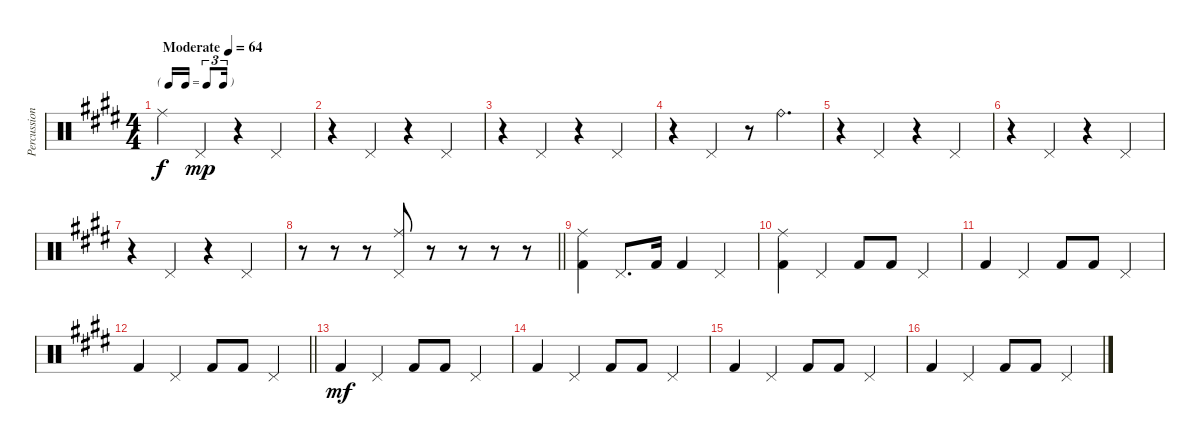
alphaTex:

\track ("Percussion" "Percussion") {instrument percussion}
\staff {score}
\articulation defaults
\ts (4 4)
\tf triplet16th
\tempo (64 "Moderate")
\clef neutral
\ks e "Ride (middle)".4{dy f} "Pedal Hi-Hat (hit)".4{dy mp}
r.4 "Pedal Hi-Hat (hit)".4 |
r.4 "Pedal Hi-Hat (hit)".4 r.4 "Pedal Hi-Hat (hit)".4 |
r.4 "Pedal Hi-Hat (hit)".4 r.4 "Pedal Hi-Hat (hit)".4 |
r.4 "Pedal Hi-Hat (hit)".4 r.8 "Ride (bell)".4{d} |
r.4 "Pedal Hi-Hat (hit)".4 r.4 "Pedal Hi-Hat (hit)".4 |
r.4 "Pedal Hi-Hat (hit)".4 r.4 "Pedal Hi-Hat (hit)".4 |
r.4 "Pedal Hi-Hat (hit)".4 r.4 "Pedal Hi-Hat (hit)".4 |
\barLineRight lightlight
r.8 r.8 r.8 ("Ride (middle)" "Pedal Hi-Hat (hit)").8 r.8 r.8 r.8 r.8 |
("Ride (middle)" "Kick (hit) 2").4 "Pedal Hi-Hat (hit)".8{d} "Kick (hit) 2".16 "Kick (hit) 2".4 "Pedal Hi-Hat (hit)".4 |
("Ride (middle)" "Kick (hit) 2").4 "Pedal Hi-Hat (hit)".4 "Kick (hit) 2".8 "Kick (hit) 2".8 "Pedal Hi-Hat (hit)".4 |
"Kick (hit) 2".4 "Pedal Hi-Hat (hit)".4 "Kick (hit) 2".8 "Kick (hit) 2".8 "Pedal Hi-Hat (hit)".4 |
\barLineRight lightlight "Kick (hit) 2".4 "Pedal Hi-Hat (hit)".4 "Kick (hit) 2".8 "Kick (hit) 2".8 "Pedal Hi-Hat (hit)".4
|
"Kick (hit) 2".4{dy mf} "Pedal Hi-Hat (hit)".4 "Kick (hit) 2".8 "Kick (hit) 2".8 "Pedal Hi-Hat (hit)".4 |
"Kick (hit) 2".4 "Pedal Hi-Hat (hit)".4 "Kick (hit) 2".8 "Kick (hit) 2".8 "Pedal Hi-Hat (hit)".4 |
"Kick (hit) 2".4 "Pedal Hi-Hat (hit)".4 "Kick (hit) 2".8 "Kick (hit) 2".8 "Pedal Hi-Hat (hit)".4 |
"Kick (hit) 2".4 "Pedal Hi-Hat (hit)".4 "Kick (hit) 2".8 "Kick (hit) 2".8 "Pedal Hi-Hat (hit)".4
